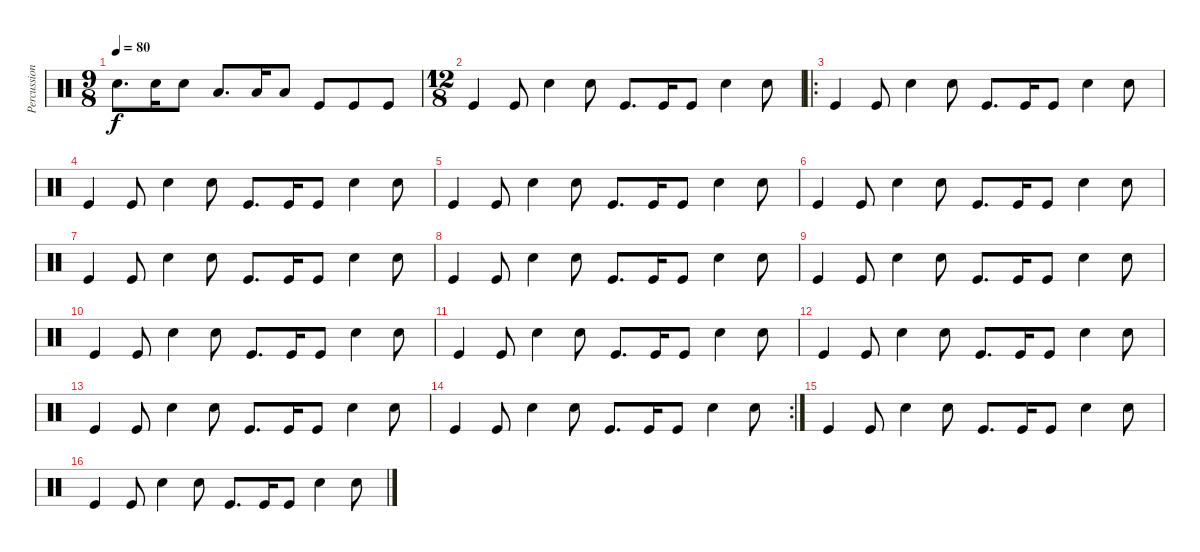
\track ("Percussion" "Percussion") {instrument percussion}
\staff {score}
\articulation defaults
\ts (9 8)
\tempo 80
\clef neutral
\ks c "Snare (hit) 2".8{d dy f} "Snare (hit) 2".16 "Snare (hit) 2".8 "Low Floor Tom (hit)".8{d} "Low Floor Tom (hit)".16 "Low Floor Tom (hit)".8 "Kick (hit)".8 "Kick (hit)".8 "Kick (hit)".8
|
\ts (12 8)
"Kick (hit)".4 "Kick (hit)".8 "Snare (hit) 2".4 "Snare (hit) 2".8 "Kick (hit)".8{d} "Kick (hit)".16 "Kick (hit)".8 "Snare (hit) 2".4 "Snare (hit) 2".8 |
\ro "Kick (hit)".4 "Kick (hit)".8 "Snare (hit) 2".4 "Snare (hit) 2".8 "Kick (hit)".8{d} "Kick (hit)".16 "Kick (hit)".8 "Snare (hit) 2".4 "Snare (hit) 2".8
|
"Kick (hit)".4 "Kick (hit)".8 "Snare (hit) 2".4 "Snare (hit) 2".8 "Kick (hit)".8{d} "Kick (hit)".16 "Kick (hit)".8 "Snare (hit) 2".4 "Snare (hit) 2".8 |
"Kick (hit)".4 "Kick (hit)".8 "Snare (hit) 2".4 "Snare (hit) 2".8 "Kick (hit)".8{d} "Kick (hit)".16 "Kick (hit)".8 "Snare (hit) 2".4 "Snare (hit) 2".8 |
"Kick (hit)".4 "Kick (hit)".8 "Snare (hit) 2".4 "Snare (hit) 2".8 "Kick (hit)".8{d} "Kick (hit)".16 "Kick (hit)".8 "Snare (hit) 2".4 "Snare (hit) 2".8 |
"Kick (hit)".4 "Kick (hit)".8 "Snare (hit) 2".4 "Snare (hit) 2".8 "Kick (hit)".8{d} "Kick (hit)".16 "Kick (hit)".8 "Snare (hit) 2".4 "Snare (hit) 2".8 |
"Kick (hit)".4 "Kick (hit)".8 "Snare (hit) 2".4 "Snare (hit) 2".8 "Kick (hit)".8{d} "Kick (hit)".16 "Kick (hit)".8 "Snare (hit) 2".4 "Snare (hit) 2".8 |
"Kick (hit)".4 "Kick (hit)".8 "Snare (hit) 2".4 "Snare (hit) 2".8 "Kick (hit)".8{d} "Kick (hit)".16 "Kick (hit)".8 "Snare (hit) 2".4 "Snare (hit) 2".8 |
"Kick (hit)".4 "Kick (hit)".8 "Snare (hit) 2".4 "Snare (hit) 2".8 "Kick (hit)".8{d} "Kick (hit)".16 "Kick (hit)".8 "Snare (hit) 2".4 "Snare (hit) 2".8 |
"Kick (hit)".4 "Kick (hit)".8 "Snare (hit) 2".4 "Snare (hit) 2".8 "Kick (hit)".8{d} "Kick (hit)".16 "Kick (hit)".8 "Snare (hit) 2".4 "Snare (hit) 2".8 |
"Kick (hit)".4 "Kick (hit)".8 "Snare (hit) 2".4 "Snare (hit) 2".8 "Kick (hit)".8{d} "Kick (hit)".16 "Kick (hit)".8 "Snare (hit) 2".4 "Snare (hit) 2".8 |
"Kick (hit)".4 "Kick (hit)".8 "Snare (hit) 2".4 "Snare (hit) 2".8 "Kick (hit)".8{d} "Kick (hit)".16 "Kick (hit)".8 "Snare (hit) 2".4 "Snare (hit) 2".8 |
\rc 2 "Kick (hit)".4 "Kick (hit)".8 "Snare (hit) 2".4 "Snare (hit) 2".8 "Kick (hit)".8{d} "Kick (hit)".16 "Kick (hit)".8 "Snare (hit) 2".4 "Snare (hit) 2".8
|
"Kick (hit)".4 "Kick (hit)".8 "Snare (hit) 2".4 "Snare (hit) 2".8 "Kick (hit)".8{d} "Kick (hit)".16 "Kick (hit)".8 "Snare (hit) 2".4 "Snare (hit) 2".8 |
"Kick (hit)".4 "Kick (hit)".8 "Snare (hit) 2".4 "Snare (hit) 2".8 "Kick (hit)".8{d} "Kick (hit)".16 "Kick (hit)".8 "Snare (hit) 2".4 "Snare (hit) 2".8
